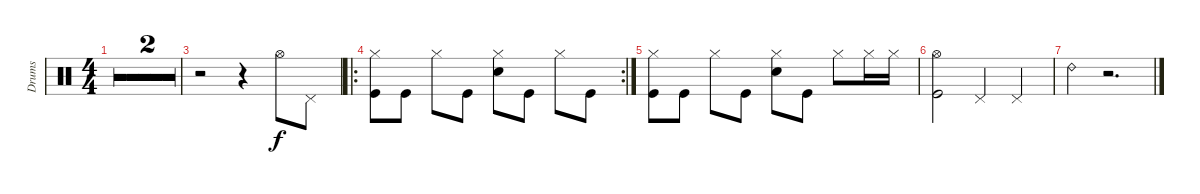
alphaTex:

\bracketExtendMode groupsimilarinstruments
\otherSystemsTrackNameOrientation horizontal
\track ("Drumkit" "Drums") {multiBarRest instrument percussion}
\staff {score}
\articulation defaults
\ts (4 4)
\tempo 120
\clef neutral
\ks c
r.4{dy f} r.2{d} |
r.4 r.2{d} |
r.2 r.4 "Hi-Hat (open)".8 "Pedal Hi-Hat (hit)".8 |
\ro
\rc 2
("Hi-Hat (closed)" "Kick (hit)").8 "Kick (hit)".8 "Hi-Hat (closed)".8 "Kick (hit)".8 ("Hi-Hat (closed)" "Snare (hit) 2").8 "Kick (hit)".8 "Hi-Hat (closed)".8 "Kick (hit)".8 |
("Hi-Hat (closed)" "Kick (hit)").8 "Kick (hit)".8 "Hi-Hat (closed)".8 "Kick (hit)".8 ("Hi-Hat (closed)" "Snare (hit) 2").8 "Kick (hit)".8 "Hi-Hat (closed)".8 "Hi-Hat (closed)".16 "Hi-Hat (closed)".16 |
("Hi-Hat (open)" "Kick (hit)").2 "Pedal Hi-Hat (hit)".4 "Pedal Hi-Hat (hit)".4 |
"Ride (bell) 2".4 r.2{d}
